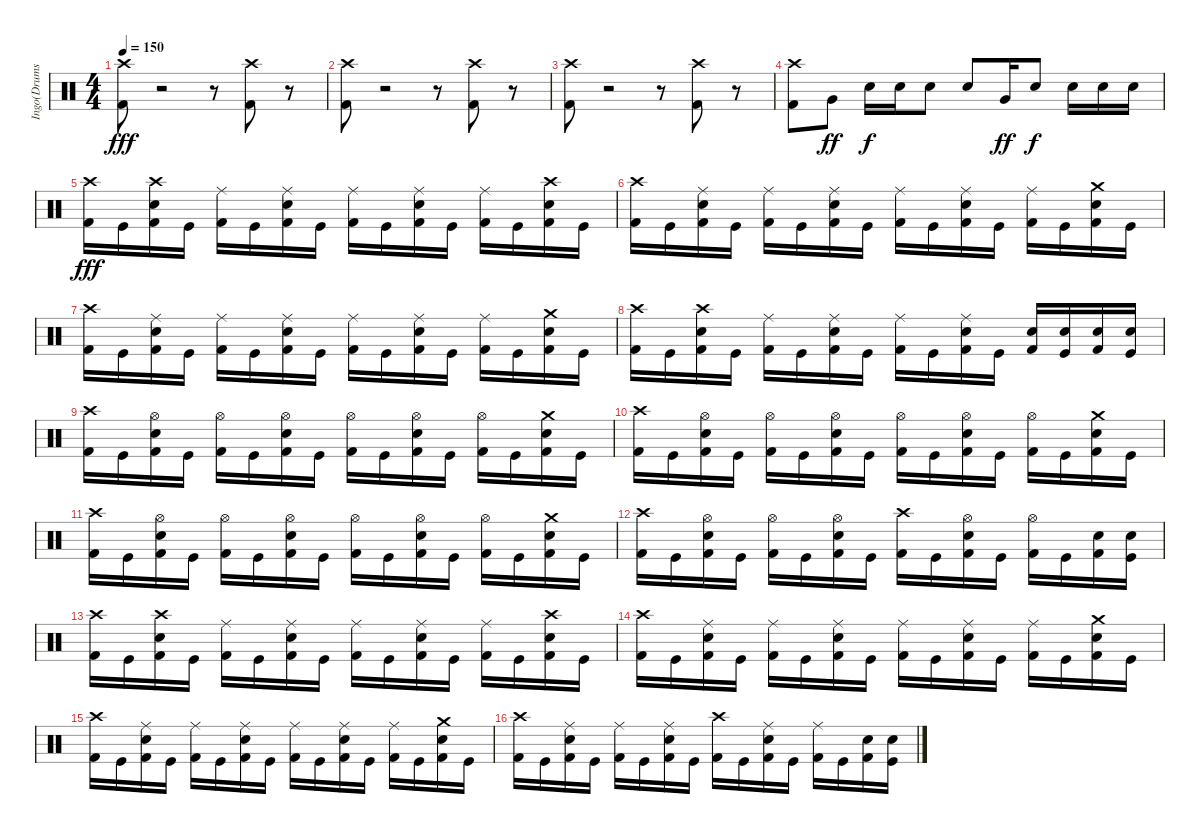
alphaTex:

\track ("Ingo(Drums)" "Ingo(Drums") {instrument percussion}
\staff {score}
\articulation defaults
\ts (4 4)
\tempo 150
\clef neutral
\ks c
("Crash high (hit)" "Kick (hit) 2").8{dy fff} r.2 r.8 ("Crash high (hit)" "Kick (hit) 2").8 r.8 |
("Crash high (hit)" "Kick (hit) 2").8 r.2 r.8 ("Crash high (hit)" "Kick (hit) 2").8 r.8 |
("Crash high (hit)" "Kick (hit) 2").8 r.2 r.8 ("Crash high (hit)" "Kick (hit) 2").8 r.8 |
("Crash high (hit)" "Kick (hit) 2").8 "Very Low Tom (hit)".8{dy ff} "Electric Snare (hit)".16{dy f} "Electric Snare (hit)".16 "Electric Snare (hit)".8 "Electric Snare (hit)".8 "Very Low Tom (hit)".16{dy ff} "Electric Snare (hit)".8{dy f} "Electric Snare (hit)".16 "Electric Snare (hit)".16 "Electric Snare (hit)".16 |
("Crash high (hit)" "Kick (hit) 2").16{dy fff} "Kick (hit)".16 ("Crash high (hit)" "Electric Snare (hit)" "Kick (hit) 2").16 "Kick (hit)".16 ("Ride (middle)" "Kick (hit) 2").16 "Kick (hit)".16 ("Ride (middle)" "Electric Snare (hit)" "Kick (hit) 2").16 "Kick (hit)".16 ("Ride (middle)" "Kick (hit) 2").16 "Kick (hit)".16 ("Ride (middle)" "Electric Snare (hit)" "Kick (hit) 2").16 "Kick (hit)".16 ("Ride (middle)" "Kick (hit) 2").16 "Kick (hit)".16 ("Crash high (hit)" "Electric Snare (hit)" "Kick (hit) 2").16 "Kick (hit)".16 |
("Crash high (hit)" "Kick (hit) 2").16 "Kick (hit)".16 ("Ride (middle)" "Electric Snare (hit)" "Kick (hit) 2").16 "Kick (hit)".16 ("Ride (middle)" "Kick (hit) 2").16 "Kick (hit)".16 ("Ride (middle)" "Electric Snare (hit)" "Kick (hit) 2").16 "Kick (hit)".16 ("Ride (middle)" "Kick (hit) 2").16 "Kick (hit)".16 ("Ride (middle)" "Electric Snare (hit)" "Kick (hit) 2").16 "Kick (hit)".16 ("Ride (middle)" "Kick (hit) 2").16 "Kick (hit)".16 ("Crash medium (hit)" "Electric Snare (hit)" "Kick (hit) 2").16 "Kick (hit)".16 |
("Crash high (hit)" "Kick (hit) 2").16 "Kick (hit)".16 ("Ride (middle)" "Electric Snare (hit)" "Kick (hit) 2").16 "Kick (hit)".16 ("Ride (middle)" "Kick (hit) 2").16 "Kick (hit)".16 ("Ride (middle)" "Electric Snare (hit)" "Kick (hit) 2").16 "Kick (hit)".16 ("Ride (middle)" "Kick (hit) 2").16 "Kick (hit)".16 ("Ride (middle)" "Electric Snare (hit)" "Kick (hit) 2").16 "Kick (hit)".16 ("Ride (middle)" "Kick (hit) 2").16 "Kick (hit)".16 ("Crash medium (hit)" "Electric Snare (hit)" "Kick (hit) 2").16 "Kick (hit)".16 |
("Crash high (hit)" "Kick (hit) 2").16 "Kick (hit)".16 ("Crash high (hit)" "Electric Snare (hit)" "Kick (hit) 2").16 "Kick (hit)".16 ("Ride (middle)" "Kick (hit) 2").16 "Kick (hit)".16 ("Ride (middle)" "Electric Snare (hit)" "Kick (hit) 2").16 "Kick (hit)".16 ("Ride (middle)" "Kick (hit) 2").16 "Kick (hit)".16 ("Ride (middle)" "Electric Snare (hit)" "Kick (hit) 2").16 "Kick (hit)".16 ("Electric Snare (hit)" "Kick (hit) 2").16 ("Electric Snare (hit)" "Kick (hit)").16 ("Electric Snare (hit)" "Kick (hit) 2").16 ("Electric Snare (hit)" "Kick (hit)").16 |
("Crash high (hit)" "Kick (hit) 2").16 "Kick (hit)".16 ("Hi-Hat (open)" "Electric Snare (hit)" "Kick (hit) 2").16 "Kick (hit)".16 ("Hi-Hat (open)" "Kick (hit) 2").16 "Kick (hit)".16 ("Hi-Hat (open)" "Electric Snare (hit)" "Kick (hit) 2").16 "Kick (hit)".16 ("Hi-Hat (open)" "Kick (hit) 2").16 "Kick (hit)".16 ("Hi-Hat (open)" "Electric Snare (hit)" "Kick (hit) 2").16 "Kick (hit)".16 ("Hi-Hat (open)" "Kick (hit) 2").16 "Kick (hit)".16 ("Crash medium (hit)" "Electric Snare (hit)" "Kick (hit) 2").16 "Kick (hit)".16 |
("Crash high (hit)" "Kick (hit) 2").16 "Kick (hit)".16 ("Hi-Hat (open)" "Electric Snare (hit)" "Kick (hit) 2").16 "Kick (hit)".16 ("Hi-Hat (open)" "Kick (hit) 2").16 "Kick (hit)".16 ("Hi-Hat (open)" "Electric Snare (hit)" "Kick (hit) 2").16 "Kick (hit)".16 ("Hi-Hat (open)" "Kick (hit) 2").16 "Kick (hit)".16 ("Hi-Hat (open)" "Electric Snare (hit)" "Kick (hit) 2").16 "Kick (hit)".16 ("Hi-Hat (open)" "Kick (hit) 2").16 "Kick (hit)".16 ("Crash medium (hit)" "Electric Snare (hit)" "Kick (hit) 2").16 "Kick (hit)".16 |
("Crash high (hit)" "Kick (hit) 2").16 "Kick (hit)".16 ("Hi-Hat (open)" "Electric Snare (hit)" "Kick (hit) 2").16 "Kick (hit)".16 ("Hi-Hat (open)" "Kick (hit) 2").16 "Kick (hit)".16 ("Hi-Hat (open)" "Electric Snare (hit)" "Kick (hit) 2").16 "Kick (hit)".16 ("Hi-Hat (open)" "Kick (hit) 2").16 "Kick (hit)".16 ("Hi-Hat (open)" "Electric Snare (hit)" "Kick (hit) 2").16 "Kick (hit)".16 ("Hi-Hat (open)" "Kick (hit) 2").16 "Kick (hit)".16 ("Crash medium (hit)" "Electric Snare (hit)" "Kick (hit) 2").16 "Kick (hit)".16 |
("Crash high (hit)" "Kick (hit) 2").16 "Kick (hit)".16 ("Hi-Hat (open)" "Electric Snare (hit)" "Kick (hit) 2").16 "Kick (hit)".16 ("Hi-Hat (open)" "Kick (hit) 2").16 "Kick (hit)".16 ("Hi-Hat (open)" "Electric Snare (hit)" "Kick (hit) 2").16 "Kick (hit)".16 ("Crash high (hit)" "Kick (hit) 2").16 "Kick (hit)".16 ("Hi-Hat (open)" "Electric Snare (hit)" "Kick (hit) 2").16 "Kick (hit)".16 ("Hi-Hat (open)" "Kick (hit) 2").16 "Kick (hit)".16 ("Electric Snare (hit)" "Kick (hit) 2").16 ("Electric Snare (hit)" "Kick (hit)").16 |
("Crash high (hit)" "Kick (hit) 2").16 "Kick (hit)".16 ("Crash high (hit)" "Electric Snare (hit)" "Kick (hit) 2").16 "Kick (hit)".16 ("Ride (middle)" "Kick (hit) 2").16 "Kick (hit)".16 ("Ride (middle)" "Electric Snare (hit)" "Kick (hit) 2").16 "Kick (hit)".16 ("Ride (middle)" "Kick (hit) 2").16 "Kick (hit)".16 ("Ride (middle)" "Electric Snare (hit)" "Kick (hit) 2").16 "Kick (hit)".16 ("Ride (middle)" "Kick (hit) 2").16 "Kick (hit)".16 ("Crash high (hit)" "Electric Snare (hit)" "Kick (hit) 2").16 "Kick (hit)".16 |
("Crash high (hit)" "Kick (hit) 2").16 "Kick (hit)".16 ("Ride (middle)" "Electric Snare (hit)" "Kick (hit) 2").16 "Kick (hit)".16 ("Ride (middle)" "Kick (hit) 2").16 "Kick (hit)".16 ("Ride (middle)" "Electric Snare (hit)" "Kick (hit) 2").16 "Kick (hit)".16 ("Ride (middle)" "Kick (hit) 2").16 "Kick (hit)".16 ("Ride (middle)" "Electric Snare (hit)" "Kick (hit) 2").16 "Kick (hit)".16 ("Ride (middle)" "Kick (hit) 2").16 "Kick (hit)".16 ("Crash medium (hit)" "Electric Snare (hit)" "Kick (hit) 2").16 "Kick (hit)".16 |
("Crash high (hit)" "Kick (hit) 2").16 "Kick (hit)".16 ("Ride (middle)" "Electric Snare (hit)" "Kick (hit) 2").16 "Kick (hit)".16 ("Ride (middle)" "Kick (hit) 2").16 "Kick (hit)".16 ("Ride (middle)" "Electric Snare (hit)" "Kick (hit) 2").16 "Kick (hit)".16 ("Ride (middle)" "Kick (hit) 2").16 "Kick (hit)".16 ("Ride (middle)" "Electric Snare (hit)" "Kick (hit) 2").16 "Kick (hit)".16 ("Ride (middle)" "Kick (hit) 2").16 "Kick (hit)".16 ("Crash medium (hit)" "Electric Snare (hit)" "Kick (hit) 2").16 "Kick (hit)".16 |
("Crash high (hit)" "Kick (hit) 2").16 "Kick (hit)".16 ("Ride (middle)" "Electric Snare (hit)" "Kick (hit) 2").16 "Kick (hit)".16 ("Ride (middle)" "Kick (hit) 2").16 "Kick (hit)".16 ("Ride (middle)" "Electric Snare (hit)" "Kick (hit) 2").16 "Kick (hit)".16 ("Crash high (hit)" "Kick (hit) 2").16 "Kick (hit)".16 ("Ride (middle)" "Electric Snare (hit)" "Kick (hit) 2").16 "Kick (hit)".16 ("Ride (middle)" "Kick (hit) 2").16 "Kick (hit)".16 ("Electric Snare (hit)" "Kick (hit) 2").16 ("Electric Snare (hit)" "Kick (hit)").16
